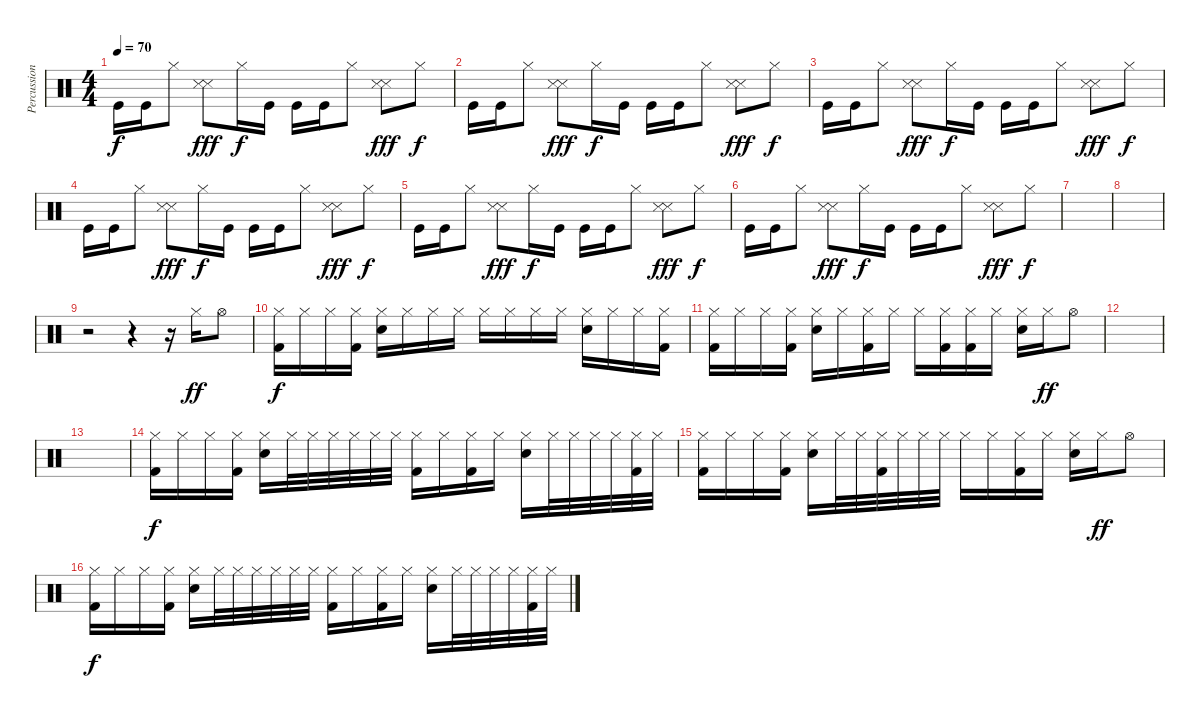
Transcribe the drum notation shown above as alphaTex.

\track ("Percussions" "Percussion") {instrument percussion}
\staff {score}
\articulation defaults
\ts (4 4)
\tempo 70
\clef neutral
\ks c "Kick (hit)".16{dy f} "Kick (hit)".16 "Hi-Hat (closed)".8
("Snare (side stick) 3" "Snare (side stick) 3").8{dy fff} "Hi-Hat (closed)".16{dy f} "Kick (hit)".16 "Kick (hit)".16 "Kick (hit)".16 "Hi-Hat (closed)".8 ("Snare (side stick) 3" "Snare (side stick) 3").8{dy fff} "Hi-Hat (closed)".8{dy f} |
"Kick (hit)".16 "Kick (hit)".16 "Hi-Hat (closed)".8 ("Snare (side stick) 3" "Snare (side stick) 3").8{dy fff} "Hi-Hat (closed)".16{dy f} "Kick (hit)".16 "Kick (hit)".16 "Kick (hit)".16 "Hi-Hat (closed)".8 ("Snare (side stick) 3" "Snare (side stick) 3").8{dy fff} "Hi-Hat (closed)".8{dy f} |
"Kick (hit)".16 "Kick (hit)".16 "Hi-Hat (closed)".8 ("Snare (side stick) 3" "Snare (side stick) 3").8{dy fff} "Hi-Hat (closed)".16{dy f} "Kick (hit)".16 "Kick (hit)".16 "Kick (hit)".16 "Hi-Hat (closed)".8 ("Snare (side stick) 3" "Snare (side stick) 3").8{dy fff} "Hi-Hat (closed)".8{dy f} |
"Kick (hit)".16 "Kick (hit)".16 "Hi-Hat (closed)".8 ("Snare (side stick) 3" "Snare (side stick) 3").8{dy fff} "Hi-Hat (closed)".16{dy f} "Kick (hit)".16 "Kick (hit)".16 "Kick (hit)".16 "Hi-Hat (closed)".8 ("Snare (side stick) 3" "Snare (side stick) 3").8{dy fff} "Hi-Hat (closed)".8{dy f} |
"Kick (hit)".16 "Kick (hit)".16 "Hi-Hat (closed)".8 ("Snare (side stick) 3" "Snare (side stick) 3").8{dy fff} "Hi-Hat (closed)".16{dy f} "Kick (hit)".16 "Kick (hit)".16 "Kick (hit)".16 "Hi-Hat (closed)".8 ("Snare (side stick) 3" "Snare (side stick) 3").8{dy fff} "Hi-Hat (closed)".8{dy f} |
"Kick (hit)".16 "Kick (hit)".16 "Hi-Hat (closed)".8 ("Snare (side stick) 3" "Snare (side stick) 3").8{dy fff} "Hi-Hat (closed)".16{dy f} "Kick (hit)".16 "Kick (hit)".16 "Kick (hit)".16 "Hi-Hat (closed)".8 ("Snare (side stick) 3" "Snare (side stick) 3").8{dy fff} "Hi-Hat (closed)".8{dy f} |
|
\section ("" "")
|
r.2 r.4 r.16 "Hi-Hat (closed)".16{dy ff} "Hi-Hat (open)".8 |
("Kick (hit) 2" "Hi-Hat (closed)").16{dy f} "Hi-Hat (closed)".16 "Hi-Hat (closed)".16 ("Kick (hit) 2" "Hi-Hat (closed)").16 ("Electric Snare (hit)" "Hi-Hat (closed)").16 "Hi-Hat (closed)".16 "Hi-Hat (closed)".16 "Hi-Hat (closed)".16 "Hi-Hat (closed)".16 "Hi-Hat (closed)".16 "Hi-Hat (closed)".16 "Hi-Hat (closed)".16 ("Electric Snare (hit)" "Hi-Hat (closed)").16 "Hi-Hat (closed)".16 "Hi-Hat (closed)".16 ("Kick (hit) 2" "Hi-Hat (closed)").16 |
("Kick (hit) 2" "Hi-Hat (closed)").16 "Hi-Hat (closed)".16 "Hi-Hat (closed)".16 ("Kick (hit) 2" "Hi-Hat (closed)").16 ("Electric Snare (hit)" "Hi-Hat (closed)").16 "Hi-Hat (closed)".16 ("Kick (hit) 2" "Hi-Hat (closed)").16 "Hi-Hat (closed)".16 "Hi-Hat (closed)".16 ("Kick (hit) 2" "Hi-Hat (closed)").16 ("Kick (hit) 2" "Hi-Hat (closed)").16 "Hi-Hat (closed)".16 ("Electric Snare (hit)" "Hi-Hat (closed)").16 "Hi-Hat (closed)".16{dy ff} "Hi-Hat (open)".8 |
\section ("" "")
|
|
\section ("" "")
("Kick (hit) 2" "Hi-Hat (closed)").16{dy f balance 8} "Hi-Hat (closed)".16 "Hi-Hat (closed)".16 ("Kick (hit) 2" "Hi-Hat (closed)").16 ("Electric Snare (hit)" "Hi-Hat (closed)").16 "Hi-Hat (closed)".32 "Hi-Hat (closed)".32 "Hi-Hat (closed)".32 "Hi-Hat (closed)".32 "Hi-Hat (closed)".32 "Hi-Hat (closed)".32 ("Kick (hit) 2" "Hi-Hat (closed)").16 "Hi-Hat (closed)".16 ("Kick (hit) 2" "Hi-Hat (closed)").16 "Hi-Hat (closed)".16 ("Electric Snare (hit)" "Hi-Hat (closed)").16 "Hi-Hat (closed)".32 "Hi-Hat (closed)".32 "Hi-Hat (closed)".32 "Hi-Hat (closed)".32 ("Kick (hit) 2" "Hi-Hat (closed)").32 "Hi-Hat (closed)".32 |
("Kick (hit) 2" "Hi-Hat (closed)").16 "Hi-Hat (closed)".16 "Hi-Hat (closed)".16 ("Kick (hit) 2" "Hi-Hat (closed)").16 ("Electric Snare (hit)" "Hi-Hat (closed)").16 "Hi-Hat (closed)".32 "Hi-Hat (closed)".32 ("Kick (hit) 2" "Hi-Hat (closed)").32 "Hi-Hat (closed)".32 "Hi-Hat (closed)".32 "Hi-Hat (closed)".32 "Hi-Hat (closed)".16 "Hi-Hat (closed)".16 ("Kick (hit) 2" "Hi-Hat (closed)").16 "Hi-Hat (closed)".16 ("Electric Snare (hit)" "Hi-Hat (closed)").16 "Hi-Hat (closed)".16{dy ff} "Hi-Hat (open)".8 |
("Kick (hit) 2" "Hi-Hat (closed)").16{dy f} "Hi-Hat (closed)".16 "Hi-Hat (closed)".16 ("Kick (hit) 2" "Hi-Hat (closed)").16 ("Electric Snare (hit)" "Hi-Hat (closed)").16 "Hi-Hat (closed)".32 "Hi-Hat (closed)".32 "Hi-Hat (closed)".32 "Hi-Hat (closed)".32 "Hi-Hat (closed)".32 "Hi-Hat (closed)".32 ("Kick (hit) 2" "Hi-Hat (closed)").16 "Hi-Hat (closed)".16 ("Kick (hit) 2" "Hi-Hat (closed)").16 "Hi-Hat (closed)".16 ("Electric Snare (hit)" "Hi-Hat (closed)").16 "Hi-Hat (closed)".32 "Hi-Hat (closed)".32 "Hi-Hat (closed)".32 "Hi-Hat (closed)".32 ("Kick (hit) 2" "Hi-Hat (closed)").32 "Hi-Hat (closed)".32
